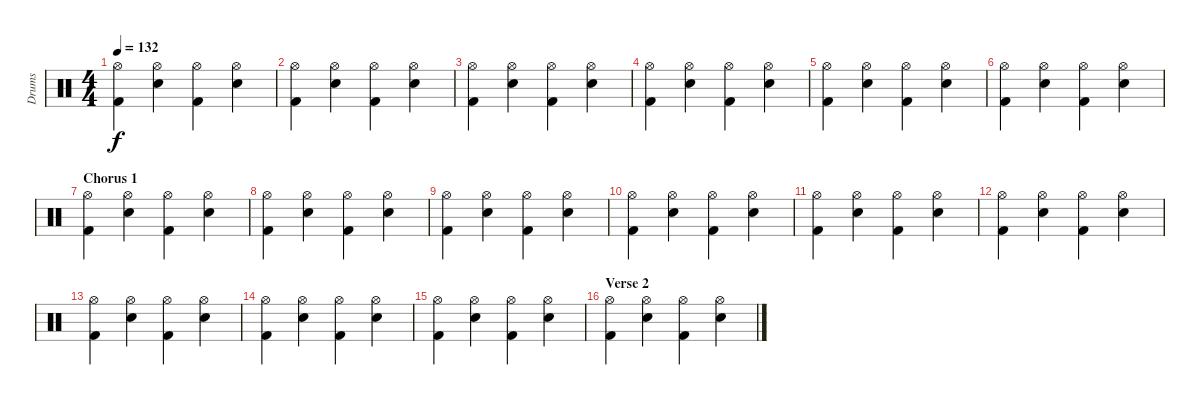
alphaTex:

\track ("Drums" "Drums") {instrument percussion}
\staff {score}
\articulation defaults
\ts (4 4)
\tempo 132
\clef neutral
\ks c
("Kick (hit) 2" "Hi-Hat (open)").4{dy f} ("Snare (hit) 2" "Hi-Hat (open)").4 ("Kick (hit) 2" "Hi-Hat (open)").4 ("Snare (hit) 2" "Hi-Hat (open)").4 |
("Kick (hit) 2" "Hi-Hat (open)").4 ("Snare (hit) 2" "Hi-Hat (open)").4 ("Kick (hit) 2" "Hi-Hat (open)").4 ("Snare (hit) 2" "Hi-Hat (open)").4 |
("Kick (hit) 2" "Hi-Hat (open)").4 ("Snare (hit) 2" "Hi-Hat (open)").4 ("Kick (hit) 2" "Hi-Hat (open)").4 ("Snare (hit) 2" "Hi-Hat (open)").4 |
("Kick (hit) 2" "Hi-Hat (open)").4 ("Snare (hit) 2" "Hi-Hat (open)").4 ("Kick (hit) 2" "Hi-Hat (open)").4 ("Snare (hit) 2" "Hi-Hat (open)").4 |
("Kick (hit) 2" "Hi-Hat (open)").4 ("Snare (hit) 2" "Hi-Hat (open)").4 ("Kick (hit) 2" "Hi-Hat (open)").4 ("Snare (hit) 2" "Hi-Hat (open)").4 |
("Kick (hit) 2" "Hi-Hat (open)").4 ("Snare (hit) 2" "Hi-Hat (open)").4 ("Kick (hit) 2" "Hi-Hat (open)").4 ("Snare (hit) 2" "Hi-Hat (open)").4 |
\section ("" "Chorus 1")
("Kick (hit) 2" "Hi-Hat (open)").4 ("Snare (hit) 2" "Hi-Hat (open)").4 ("Kick (hit) 2" "Hi-Hat (open)").4 ("Snare (hit) 2" "Hi-Hat (open)").4 |
("Kick (hit) 2" "Hi-Hat (open)").4 ("Snare (hit) 2" "Hi-Hat (open)").4 ("Kick (hit) 2" "Hi-Hat (open)").4 ("Snare (hit) 2" "Hi-Hat (open)").4 |
("Kick (hit) 2" "Hi-Hat (open)").4 ("Snare (hit) 2" "Hi-Hat (open)").4 ("Kick (hit) 2" "Hi-Hat (open)").4 ("Snare (hit) 2" "Hi-Hat (open)").4 |
("Kick (hit) 2" "Hi-Hat (open)").4 ("Snare (hit) 2" "Hi-Hat (open)").4 ("Kick (hit) 2" "Hi-Hat (open)").4 ("Snare (hit) 2" "Hi-Hat (open)").4 |
("Kick (hit) 2" "Hi-Hat (open)").4 ("Snare (hit) 2" "Hi-Hat (open)").4 ("Kick (hit) 2" "Hi-Hat (open)").4 ("Snare (hit) 2" "Hi-Hat (open)").4 |
("Kick (hit) 2" "Hi-Hat (open)").4 ("Snare (hit) 2" "Hi-Hat (open)").4 ("Kick (hit) 2" "Hi-Hat (open)").4 ("Snare (hit) 2" "Hi-Hat (open)").4 |
("Kick (hit) 2" "Hi-Hat (open)").4 ("Snare (hit) 2" "Hi-Hat (open)").4 ("Kick (hit) 2" "Hi-Hat (open)").4 ("Snare (hit) 2" "Hi-Hat (open)").4 |
("Kick (hit) 2" "Hi-Hat (open)").4 ("Snare (hit) 2" "Hi-Hat (open)").4 ("Kick (hit) 2" "Hi-Hat (open)").4 ("Snare (hit) 2" "Hi-Hat (open)").4 |
("Kick (hit) 2" "Hi-Hat (open)").4 ("Snare (hit) 2" "Hi-Hat (open)").4 ("Kick (hit) 2" "Hi-Hat (open)").4 ("Snare (hit) 2" "Hi-Hat (open)").4 |
\section ("" "Verse 2")
("Kick (hit) 2" "Hi-Hat (open)").4 ("Snare (hit) 2" "Hi-Hat (open)").4 ("Kick (hit) 2" "Hi-Hat (open)").4 ("Snare (hit) 2" "Hi-Hat (open)").4
